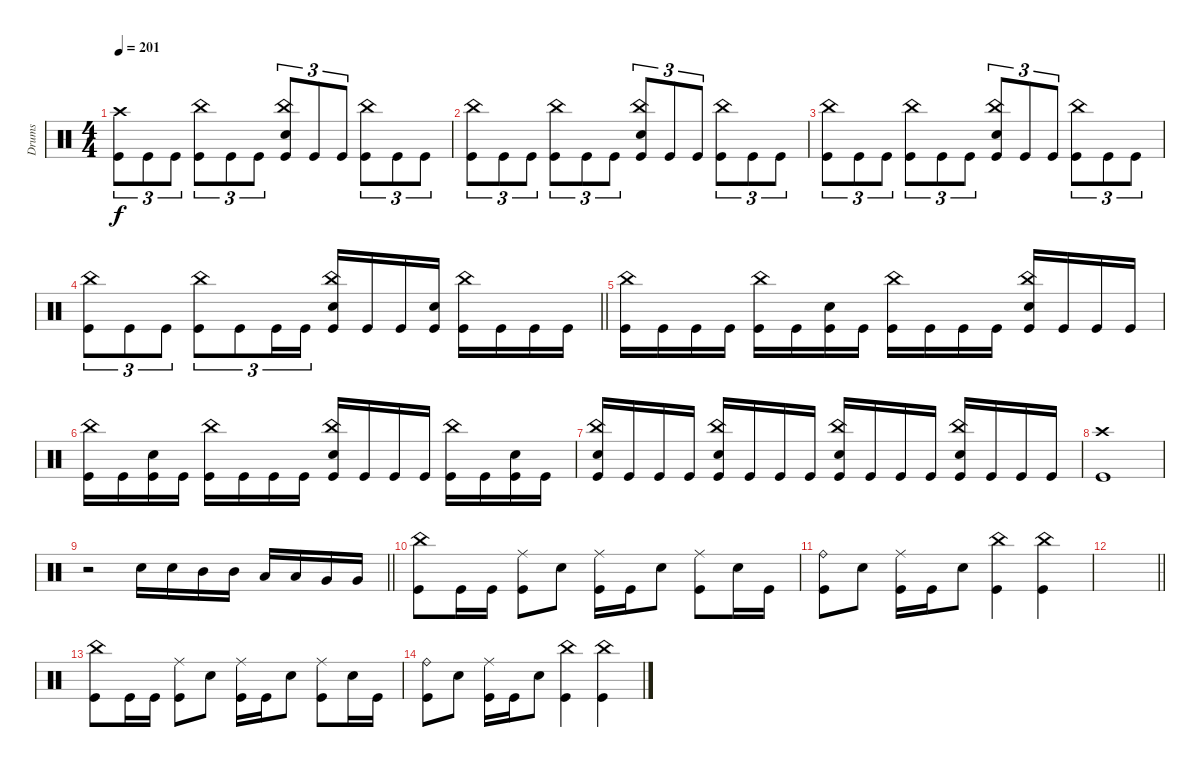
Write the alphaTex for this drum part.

\track ("Drums" "Drums") {instrument percussion}
\staff
\articulation defaults
\ts (4 4)
\tempo 201
\clef neutral
\ks c
("Crash high (hit)" "Kick (hit)").8{tu (3 2) dy f} "Kick (hit)".8{tu (3 2)} "Kick (hit)".8{tu (3 2)} ("China (hit)" "Kick (hit)").8{tu (3 2)} "Kick (hit)".8{tu (3 2)} "Kick (hit)".8{tu (3 2)} ("China (hit)" "Electric Snare (hit)" "Kick (hit)").8{tu (3 2)} "Kick (hit)".8{tu (3 2)} "Kick (hit)".8{tu (3 2)} ("China (hit)" "Kick (hit)").8{tu (3 2)} "Kick (hit)".8{tu (3 2)} "Kick (hit)".8{tu (3 2)} |
("China (hit)" "Kick (hit)").8{tu (3 2)} "Kick (hit)".8{tu (3 2)} "Kick (hit)".8{tu (3 2)} ("China (hit)" "Kick (hit)").8{tu (3 2)} "Kick (hit)".8{tu (3 2)} "Kick (hit)".8{tu (3 2)} ("China (hit)" "Electric Snare (hit)" "Kick (hit)").8{tu (3 2)} "Kick (hit)".8{tu (3 2)} "Kick (hit)".8{tu (3 2)} ("China (hit)" "Kick (hit)").8{tu (3 2)} "Kick (hit)".8{tu (3 2)} "Kick (hit)".8{tu (3 2)} |
("China (hit)" "Kick (hit)").8{tu (3 2)} "Kick (hit)".8{tu (3 2)} "Kick (hit)".8{tu (3 2)} ("China (hit)" "Kick (hit)").8{tu (3 2)} "Kick (hit)".8{tu (3 2)} "Kick (hit)".8{tu (3 2)} ("China (hit)" "Electric Snare (hit)" "Kick (hit)").8{tu (3 2)} "Kick (hit)".8{tu (3 2)} "Kick (hit)".8{tu (3 2)} ("China (hit)" "Kick (hit)").8{tu (3 2)} "Kick (hit)".8{tu (3 2)} "Kick (hit)".8{tu (3 2)} |
\barLineRight lightlight
("China (hit)" "Kick (hit)").8{tu (3 2)} "Kick (hit)".8{tu (3 2)} "Kick (hit)".8{tu (3 2)} ("China (hit)" "Kick (hit)").8{tu (3 2)} "Kick (hit)".8{tu (3 2)} "Kick (hit)".16{tu (3 2)} "Kick (hit)".16{tu (3 2)} ("China (hit)" "Electric Snare (hit)" "Kick (hit)").16 "Kick (hit)".16 "Kick (hit)".16 ("Electric Snare (hit)" "Kick (hit)").16 ("China (hit)" "Kick (hit)").16 "Kick (hit)".16 "Kick (hit)".16 "Kick (hit)".16 |
("China (hit)" "Kick (hit)").16 "Kick (hit)".16 "Kick (hit)".16 "Kick (hit)".16 ("China (hit)" "Kick (hit)").16 "Kick (hit)".16 ("Electric Snare (hit)" "Kick (hit)").16 "Kick (hit)".16 ("China (hit)" "Kick (hit)").16 "Kick (hit)".16 "Kick (hit)".16 "Kick (hit)".16 ("China (hit)" "Electric Snare (hit)" "Kick (hit)").16 "Kick (hit)".16 "Kick (hit)".16 "Kick (hit)".16 |
("China (hit)" "Kick (hit)").16 "Kick (hit)".16 ("Electric Snare (hit)" "Kick (hit)").16 "Kick (hit)".16 ("China (hit)" "Kick (hit)").16 "Kick (hit)".16 "Kick (hit)".16 "Kick (hit)".16 ("China (hit)" "Electric Snare (hit)" "Kick (hit)").16 "Kick (hit)".16 "Kick (hit)".16 "Kick (hit)".16 ("China (hit)" "Kick (hit)").16 "Kick (hit)".16 ("Electric Snare (hit)" "Kick (hit)").16 "Kick (hit)".16 |
("China (hit)" "Electric Snare (hit)" "Kick (hit)").16 "Kick (hit)".16 "Kick (hit)".16 "Kick (hit)".16 ("China (hit)" "Electric Snare (hit)" "Kick (hit)").16 "Kick (hit)".16 "Kick (hit)".16 "Kick (hit)".16 ("China (hit)" "Electric Snare (hit)" "Kick (hit)").16 "Kick (hit)".16 "Kick (hit)".16 "Kick (hit)".16 ("China (hit)" "Electric Snare (hit)" "Kick (hit)").16 "Kick (hit)".16 "Kick (hit)".16 "Kick (hit)".16 |
("Crash high (hit)" "Kick (hit)").1 |
\barLineRight lightlight
r.2 "Electric Snare (hit)".16 "Electric Snare (hit)".16 "Mid Tom (hit)".16 "Mid Tom (hit)".16 "Low Tom (hit)".16 "Low Tom (hit)".16 "Very Low Tom (hit)".16 "Very Low Tom (hit)".16 |
\section ("" "")
("China (hit)" "Kick (hit)").8 "Kick (hit)".16 "Kick (hit)".16 ("Ride (middle)" "Kick (hit)").8 "Electric Snare (hit)".8 ("Ride (middle)" "Kick (hit)").16 "Kick (hit)".16 "Electric Snare (hit)".8 ("Ride (middle)" "Kick (hit)").8 "Electric Snare (hit)".16 "Kick (hit)".16 |
("Ride (bell)" "Kick (hit)").8 "Electric Snare (hit)".8 ("Ride (middle)" "Kick (hit)").16 "Kick (hit)".16 "Electric Snare (hit)".8 ("China (hit)" "Kick (hit)").4 ("China (hit)" "Kick (hit)").4 |
\barLineRight lightlight
|
("China (hit)" "Kick (hit)").8 "Kick (hit)".16 "Kick (hit)".16 ("Ride (middle)" "Kick (hit)").8 "Electric Snare (hit)".8 ("Ride (middle)" "Kick (hit)").16 "Kick (hit)".16 "Electric Snare (hit)".8 ("Ride (middle)" "Kick (hit)").8 "Electric Snare (hit)".16 "Kick (hit)".16 |
("Ride (bell)" "Kick (hit)").8 "Electric Snare (hit)".8 ("Ride (middle)" "Kick (hit)").16 "Kick (hit)".16 "Electric Snare (hit)".8 ("China (hit)" "Kick (hit)").4 ("China (hit)" "Kick (hit)").4
